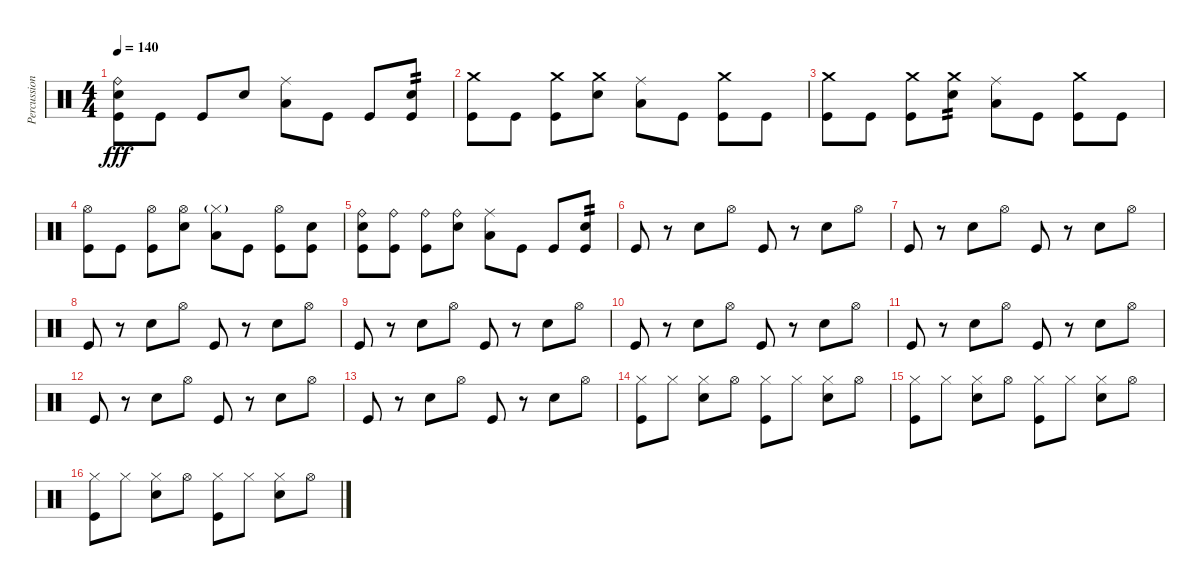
\track ("Percussion" "Percussion") {instrument percussion}
\staff {score}
\articulation defaults
\ts (4 4)
\tempo 140
\clef neutral
\ks c
("Ride (bell)" "Snare (hit) 2" "Kick (hit)").8{dy fff} "Kick (hit)".8 "Kick (hit)".8 "Snare (hit) 2".8 ("Ride (middle)" "Low Floor Tom (hit)").8 "Kick (hit)".8 "Kick (hit)".8 ("Snare (hit) 2" "Kick (hit)").8{tp 2} |
("Crash medium (hit)" "Kick (hit)").8 "Kick (hit)".8 ("Crash medium (hit)" "Kick (hit)").8 ("Crash medium (hit)" "Snare (hit) 2").8 ("Ride (middle)" "Low Floor Tom (hit)").8 "Kick (hit)".8 ("Crash medium (hit)" "Kick (hit)").8 "Kick (hit)".8 |
("Crash medium (hit)" "Kick (hit)").8 "Kick (hit)".8 ("Crash medium (hit)" "Kick (hit)").8 ("Crash medium (hit)" "Snare (hit) 2").8{tp 2} ("Ride (middle)" "Low Floor Tom (hit)").8 "Kick (hit)".8 ("Crash medium (hit)" "Kick (hit)").8 "Kick (hit)".8 |
("Hi-Hat (open)" "Kick (hit)").8 "Kick (hit)".8 ("Hi-Hat (open)" "Kick (hit)").8 ("Hi-Hat (open)" "Snare (hit) 2").8 ("Hi-Hat (closed)"{g} "Low Floor Tom (hit)").8 "Kick (hit)".8 ("Hi-Hat (open)" "Kick (hit)").8 ("Snare (hit) 2" "Kick (hit)").8 |
("Ride (bell)" "Snare (hit) 2" "Kick (hit)").8 ("Ride (bell)" "Kick (hit)").8 ("Ride (bell)" "Kick (hit)").8 ("Ride (bell)" "Snare (hit) 2").8 ("Ride (middle)" "Low Floor Tom (hit)").8 "Kick (hit)".8 "Kick (hit)".8 ("Snare (hit) 2" "Kick (hit)").8{tp 2} |
"Kick (hit)".8 r.8 "Snare (hit) 2".8 "Hi-Hat (open)".8 "Kick (hit)".8 r.8 "Snare (hit) 2".8 "Hi-Hat (open)".8 |
"Kick (hit)".8 r.8 "Snare (hit) 2".8 "Hi-Hat (open)".8 "Kick (hit)".8 r.8 "Snare (hit) 2".8 "Hi-Hat (open)".8 |
"Kick (hit)".8 r.8 "Snare (hit) 2".8 "Hi-Hat (open)".8 "Kick (hit)".8 r.8 "Snare (hit) 2".8 "Hi-Hat (open)".8 |
"Kick (hit)".8 r.8 "Snare (hit) 2".8 "Hi-Hat (open)".8 "Kick (hit)".8 r.8 "Snare (hit) 2".8 "Hi-Hat (open)".8 |
"Kick (hit)".8 r.8 "Snare (hit) 2".8 "Hi-Hat (open)".8 "Kick (hit)".8 r.8 "Snare (hit) 2".8 "Hi-Hat (open)".8 |
"Kick (hit)".8 r.8 "Snare (hit) 2".8 "Hi-Hat (open)".8 "Kick (hit)".8 r.8 "Snare (hit) 2".8 "Hi-Hat (open)".8 |
"Kick (hit)".8 r.8 "Snare (hit) 2".8 "Hi-Hat (open)".8 "Kick (hit)".8 r.8 "Snare (hit) 2".8 "Hi-Hat (open)".8 |
"Kick (hit)".8 r.8 "Snare (hit) 2".8 "Hi-Hat (open)".8 "Kick (hit)".8 r.8 "Snare (hit) 2".8 "Hi-Hat (open)".8 |
("Hi-Hat (closed)" "Kick (hit)").8 "Hi-Hat (closed)".8 ("Hi-Hat (closed)" "Snare (hit) 2").8 "Hi-Hat (open)".8 ("Hi-Hat (closed)" "Kick (hit)").8 "Hi-Hat (closed)".8 ("Hi-Hat (closed)" "Snare (hit) 2").8 "Hi-Hat (open)".8 |
("Hi-Hat (closed)" "Kick (hit)").8 "Hi-Hat (closed)".8 ("Hi-Hat (closed)" "Snare (hit) 2").8 "Hi-Hat (open)".8 ("Hi-Hat (closed)" "Kick (hit)").8 "Hi-Hat (closed)".8 ("Hi-Hat (closed)" "Snare (hit) 2").8 "Hi-Hat (open)".8 |
("Hi-Hat (closed)" "Kick (hit)").8 "Hi-Hat (closed)".8 ("Hi-Hat (closed)" "Snare (hit) 2").8 "Hi-Hat (open)".8 ("Hi-Hat (closed)" "Kick (hit)").8 "Hi-Hat (closed)".8 ("Hi-Hat (closed)" "Snare (hit) 2").8 "Hi-Hat (open)".8
